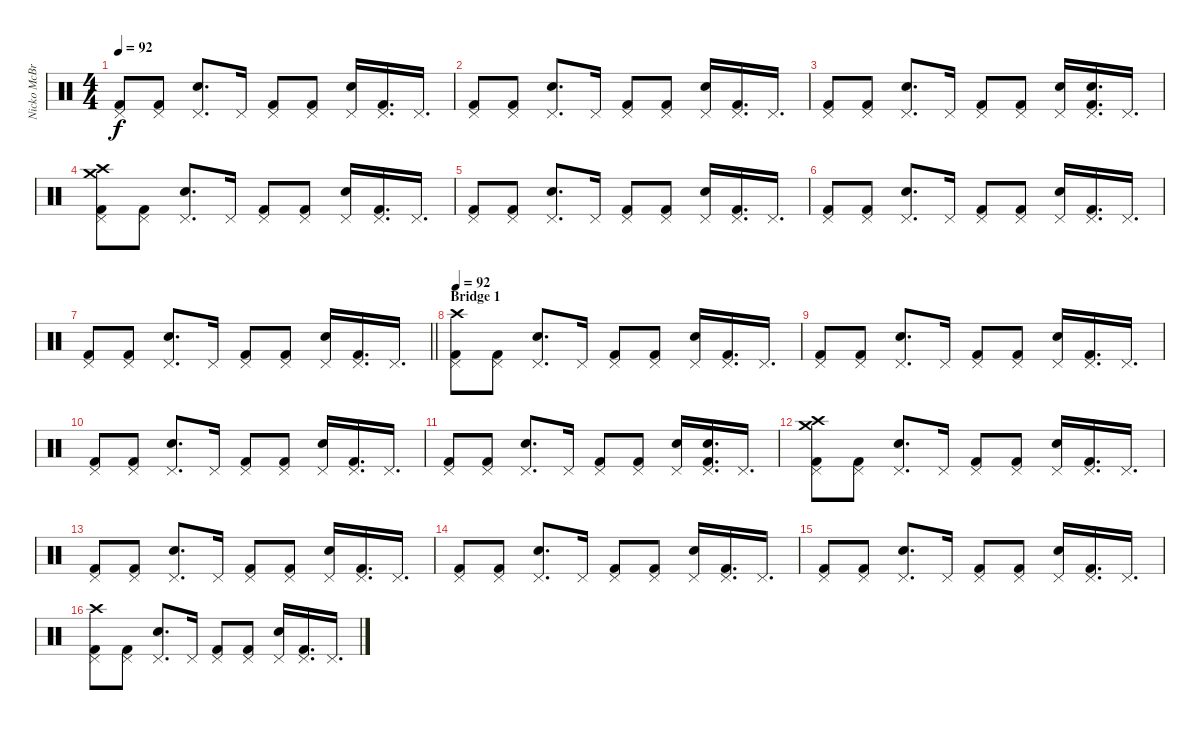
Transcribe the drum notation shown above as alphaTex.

\track ("Nicko McBrain" "Nicko McBr") {instrument percussion}
\staff {score}
\articulation defaults
\ts (4 4)
\tempo 92
\clef neutral
\ks c
("Pedal Hi-Hat (hit)" "Kick (hit) 2").8{dy f} ("Pedal Hi-Hat (hit)" "Kick (hit) 2").8 ("Electric Snare (hit)" "Pedal Hi-Hat (hit)").8{d} "Pedal Hi-Hat (hit)".16 ("Pedal Hi-Hat (hit)" "Kick (hit) 2").8 ("Pedal Hi-Hat (hit)" "Kick (hit) 2").8 ("Electric Snare (hit)" "Pedal Hi-Hat (hit)").16 ("Pedal Hi-Hat (hit)" "Kick (hit) 2").16{d} "Pedal Hi-Hat (hit)".16{d} |
("Pedal Hi-Hat (hit)" "Kick (hit) 2").8 ("Pedal Hi-Hat (hit)" "Kick (hit) 2").8 ("Electric Snare (hit)" "Pedal Hi-Hat (hit)").8{d} "Pedal Hi-Hat (hit)".16 ("Pedal Hi-Hat (hit)" "Kick (hit) 2").8 ("Pedal Hi-Hat (hit)" "Kick (hit) 2").8 ("Electric Snare (hit)" "Pedal Hi-Hat (hit)").16 ("Pedal Hi-Hat (hit)" "Kick (hit) 2").16{d} "Pedal Hi-Hat (hit)".16{d} |
("Pedal Hi-Hat (hit)" "Kick (hit) 2").8 ("Pedal Hi-Hat (hit)" "Kick (hit) 2").8 ("Electric Snare (hit)" "Pedal Hi-Hat (hit)").8{d} "Pedal Hi-Hat (hit)".16 ("Pedal Hi-Hat (hit)" "Kick (hit) 2").8 ("Pedal Hi-Hat (hit)" "Kick (hit) 2").8 ("Electric Snare (hit)" "Pedal Hi-Hat (hit)").16 ("Pedal Hi-Hat (hit)" "Electric Snare (hit)" "Kick (hit) 2").16{d} "Pedal Hi-Hat (hit)".16{d} |
("Pedal Hi-Hat (hit)" "Crash high (hit)" "Crash medium (hit)" "Kick (hit) 2").8 ("Pedal Hi-Hat (hit)" "Kick (hit) 2").8 ("Electric Snare (hit)" "Pedal Hi-Hat (hit)").8{d} "Pedal Hi-Hat (hit)".16 ("Pedal Hi-Hat (hit)" "Kick (hit) 2").8 ("Pedal Hi-Hat (hit)" "Kick (hit) 2").8 ("Electric Snare (hit)" "Pedal Hi-Hat (hit)").16 ("Pedal Hi-Hat (hit)" "Kick (hit) 2").16{d} "Pedal Hi-Hat (hit)".16{d} |
("Pedal Hi-Hat (hit)" "Kick (hit) 2").8 ("Pedal Hi-Hat (hit)" "Kick (hit) 2").8 ("Electric Snare (hit)" "Pedal Hi-Hat (hit)").8{d} "Pedal Hi-Hat (hit)".16 ("Pedal Hi-Hat (hit)" "Kick (hit) 2").8 ("Pedal Hi-Hat (hit)" "Kick (hit) 2").8 ("Electric Snare (hit)" "Pedal Hi-Hat (hit)").16 ("Pedal Hi-Hat (hit)" "Kick (hit) 2").16{d} "Pedal Hi-Hat (hit)".16{d} |
("Pedal Hi-Hat (hit)" "Kick (hit) 2").8 ("Pedal Hi-Hat (hit)" "Kick (hit) 2").8 ("Electric Snare (hit)" "Pedal Hi-Hat (hit)").8{d} "Pedal Hi-Hat (hit)".16 ("Pedal Hi-Hat (hit)" "Kick (hit) 2").8 ("Pedal Hi-Hat (hit)" "Kick (hit) 2").8 ("Electric Snare (hit)" "Pedal Hi-Hat (hit)").16 ("Pedal Hi-Hat (hit)" "Kick (hit) 2").16{d} "Pedal Hi-Hat (hit)".16{d} |
\barLineRight lightlight
("Pedal Hi-Hat (hit)" "Kick (hit) 2").8 ("Pedal Hi-Hat (hit)" "Kick (hit) 2").8 ("Electric Snare (hit)" "Pedal Hi-Hat (hit)").8{d} "Pedal Hi-Hat (hit)".16 ("Pedal Hi-Hat (hit)" "Kick (hit) 2").8 ("Pedal Hi-Hat (hit)" "Kick (hit) 2").8 ("Electric Snare (hit)" "Pedal Hi-Hat (hit)").16 ("Pedal Hi-Hat (hit)" "Kick (hit) 2").16{d} "Pedal Hi-Hat (hit)".16{d} |
\section ("" "Bridge 1")
\tempo 92
("Pedal Hi-Hat (hit)" "Crash high (hit)" "Kick (hit) 2").8 ("Pedal Hi-Hat (hit)" "Kick (hit) 2").8 ("Electric Snare (hit)" "Pedal Hi-Hat (hit)").8{d} "Pedal Hi-Hat (hit)".16 ("Pedal Hi-Hat (hit)" "Kick (hit) 2").8 ("Pedal Hi-Hat (hit)" "Kick (hit) 2").8 ("Electric Snare (hit)" "Pedal Hi-Hat (hit)").16 ("Pedal Hi-Hat (hit)" "Kick (hit) 2").16{d} "Pedal Hi-Hat (hit)".16{d} |
("Pedal Hi-Hat (hit)" "Kick (hit) 2").8 ("Pedal Hi-Hat (hit)" "Kick (hit) 2").8 ("Electric Snare (hit)" "Pedal Hi-Hat (hit)").8{d} "Pedal Hi-Hat (hit)".16 ("Pedal Hi-Hat (hit)" "Kick (hit) 2").8 ("Pedal Hi-Hat (hit)" "Kick (hit) 2").8 ("Electric Snare (hit)" "Pedal Hi-Hat (hit)").16 ("Pedal Hi-Hat (hit)" "Kick (hit) 2").16{d} "Pedal Hi-Hat (hit)".16{d} |
("Pedal Hi-Hat (hit)" "Kick (hit) 2").8 ("Pedal Hi-Hat (hit)" "Kick (hit) 2").8 ("Electric Snare (hit)" "Pedal Hi-Hat (hit)").8{d} "Pedal Hi-Hat (hit)".16 ("Pedal Hi-Hat (hit)" "Kick (hit) 2").8 ("Pedal Hi-Hat (hit)" "Kick (hit) 2").8 ("Electric Snare (hit)" "Pedal Hi-Hat (hit)").16 ("Pedal Hi-Hat (hit)" "Kick (hit) 2").16{d} "Pedal Hi-Hat (hit)".16{d} |
("Pedal Hi-Hat (hit)" "Kick (hit) 2").8 ("Pedal Hi-Hat (hit)" "Kick (hit) 2").8 ("Electric Snare (hit)" "Pedal Hi-Hat (hit)").8{d} "Pedal Hi-Hat (hit)".16 ("Pedal Hi-Hat (hit)" "Kick (hit) 2").8 ("Pedal Hi-Hat (hit)" "Kick (hit) 2").8 ("Electric Snare (hit)" "Pedal Hi-Hat (hit)").16 ("Pedal Hi-Hat (hit)" "Electric Snare (hit)" "Kick (hit) 2").16{d} "Pedal Hi-Hat (hit)".16{d} |
("Pedal Hi-Hat (hit)" "Crash high (hit)" "Crash medium (hit)" "Kick (hit) 2").8 ("Pedal Hi-Hat (hit)" "Kick (hit) 2").8 ("Electric Snare (hit)" "Pedal Hi-Hat (hit)").8{d} "Pedal Hi-Hat (hit)".16 ("Pedal Hi-Hat (hit)" "Kick (hit) 2").8 ("Pedal Hi-Hat (hit)" "Kick (hit) 2").8 ("Electric Snare (hit)" "Pedal Hi-Hat (hit)").16 ("Pedal Hi-Hat (hit)" "Kick (hit) 2").16{d} "Pedal Hi-Hat (hit)".16{d} |
("Pedal Hi-Hat (hit)" "Kick (hit) 2").8 ("Pedal Hi-Hat (hit)" "Kick (hit) 2").8 ("Electric Snare (hit)" "Pedal Hi-Hat (hit)").8{d} "Pedal Hi-Hat (hit)".16 ("Pedal Hi-Hat (hit)" "Kick (hit) 2").8 ("Pedal Hi-Hat (hit)" "Kick (hit) 2").8 ("Electric Snare (hit)" "Pedal Hi-Hat (hit)").16 ("Pedal Hi-Hat (hit)" "Kick (hit) 2").16{d} "Pedal Hi-Hat (hit)".16{d} |
("Pedal Hi-Hat (hit)" "Kick (hit) 2").8 ("Pedal Hi-Hat (hit)" "Kick (hit) 2").8 ("Electric Snare (hit)" "Pedal Hi-Hat (hit)").8{d} "Pedal Hi-Hat (hit)".16 ("Pedal Hi-Hat (hit)" "Kick (hit) 2").8 ("Pedal Hi-Hat (hit)" "Kick (hit) 2").8 ("Electric Snare (hit)" "Pedal Hi-Hat (hit)").16 ("Pedal Hi-Hat (hit)" "Kick (hit) 2").16{d} "Pedal Hi-Hat (hit)".16{d} |
("Pedal Hi-Hat (hit)" "Kick (hit) 2").8 ("Pedal Hi-Hat (hit)" "Kick (hit) 2").8 ("Electric Snare (hit)" "Pedal Hi-Hat (hit)").8{d} "Pedal Hi-Hat (hit)".16 ("Pedal Hi-Hat (hit)" "Kick (hit) 2").8 ("Pedal Hi-Hat (hit)" "Kick (hit) 2").8 ("Electric Snare (hit)" "Pedal Hi-Hat (hit)").16 ("Pedal Hi-Hat (hit)" "Kick (hit) 2").16{d} "Pedal Hi-Hat (hit)".16{d} |
("Pedal Hi-Hat (hit)" "Crash high (hit)" "Kick (hit) 2").8 ("Pedal Hi-Hat (hit)" "Kick (hit) 2").8 ("Electric Snare (hit)" "Pedal Hi-Hat (hit)").8{d} "Pedal Hi-Hat (hit)".16 ("Pedal Hi-Hat (hit)" "Kick (hit) 2").8 ("Pedal Hi-Hat (hit)" "Kick (hit) 2").8 ("Electric Snare (hit)" "Pedal Hi-Hat (hit)").16 ("Pedal Hi-Hat (hit)" "Kick (hit) 2").16{d} "Pedal Hi-Hat (hit)".16{d}
